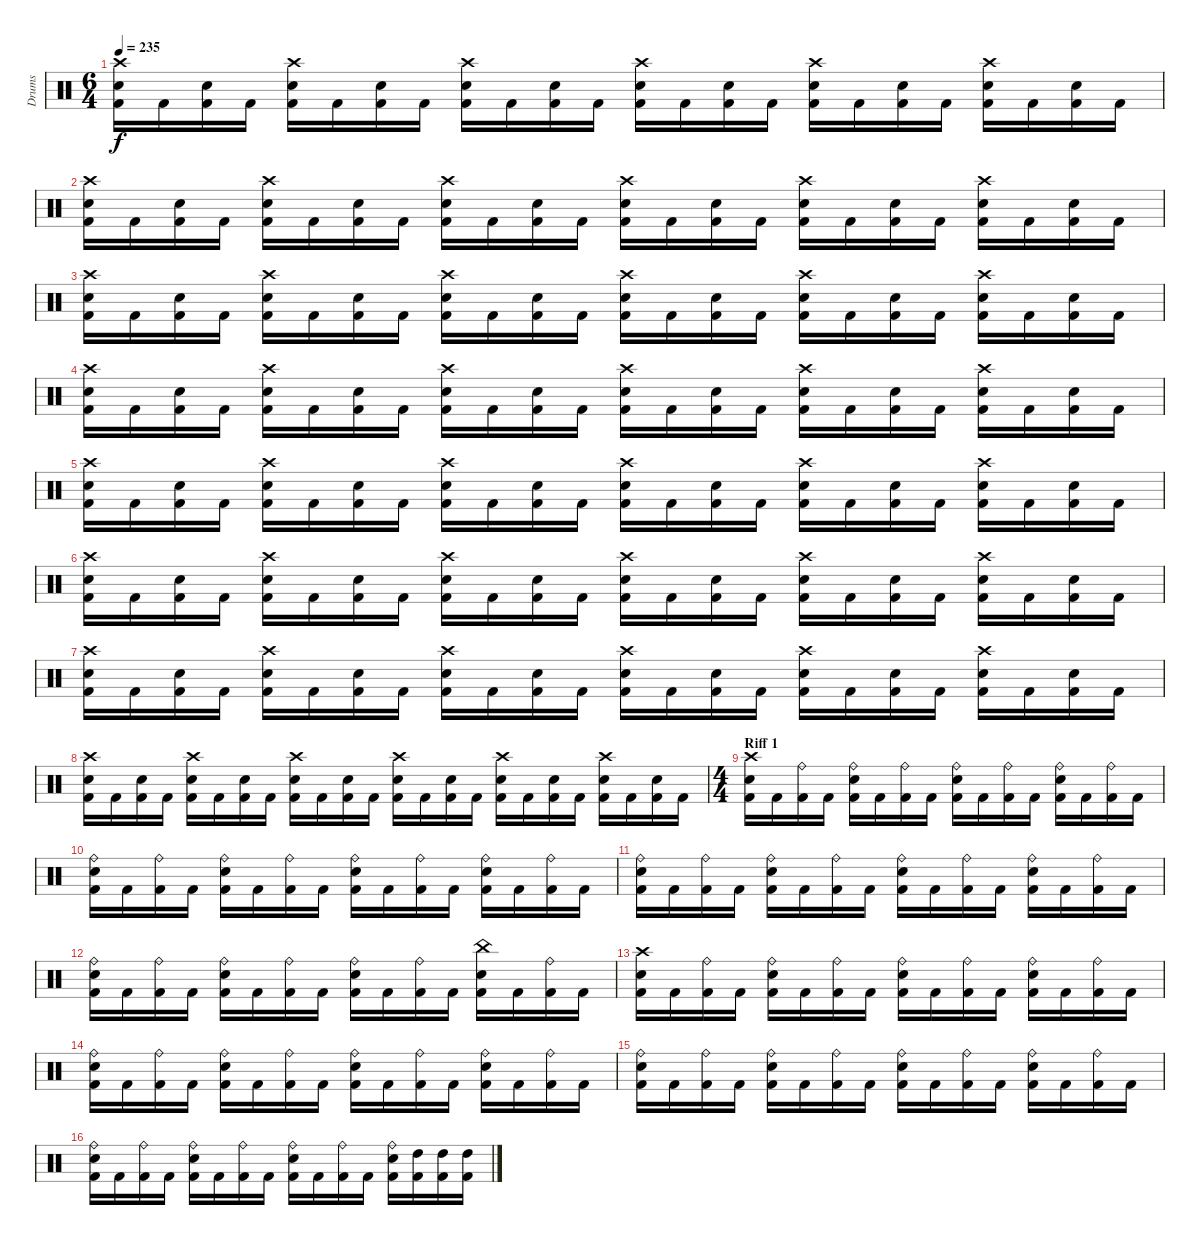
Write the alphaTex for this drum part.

\track ("Drums" "Drums") {instrument percussion}
\staff {score}
\articulation defaults
\ts (6 4)
\tempo 235
\clef neutral
\ks c
("Kick (hit) 2" "Snare (hit) 2" "Crash high (hit)").16{dy f} "Kick (hit) 2".16 ("Kick (hit) 2" "Snare (hit) 2").16 "Kick (hit) 2".16 ("Kick (hit) 2" "Snare (hit) 2" "Crash high (hit)").16 "Kick (hit) 2".16 ("Kick (hit) 2" "Snare (hit) 2").16 "Kick (hit) 2".16 ("Kick (hit) 2" "Snare (hit) 2" "Crash high (hit)").16 "Kick (hit) 2".16 ("Kick (hit) 2" "Snare (hit) 2").16 "Kick (hit) 2".16 ("Kick (hit) 2" "Snare (hit) 2" "Crash high (hit)").16 "Kick (hit) 2".16 ("Kick (hit) 2" "Snare (hit) 2").16 "Kick (hit) 2".16 ("Kick (hit) 2" "Snare (hit) 2" "Crash high (hit)").16 "Kick (hit) 2".16 ("Kick (hit) 2" "Snare (hit) 2").16 "Kick (hit) 2".16 ("Kick (hit) 2" "Snare (hit) 2" "Crash high (hit)").16 "Kick (hit) 2".16 ("Kick (hit) 2" "Snare (hit) 2").16 "Kick (hit) 2".16 |
("Kick (hit) 2" "Snare (hit) 2" "Crash high (hit)").16 "Kick (hit) 2".16 ("Kick (hit) 2" "Snare (hit) 2").16 "Kick (hit) 2".16 ("Kick (hit) 2" "Snare (hit) 2" "Crash high (hit)").16 "Kick (hit) 2".16 ("Kick (hit) 2" "Snare (hit) 2").16 "Kick (hit) 2".16 ("Kick (hit) 2" "Snare (hit) 2" "Crash high (hit)").16 "Kick (hit) 2".16 ("Kick (hit) 2" "Snare (hit) 2").16 "Kick (hit) 2".16 ("Kick (hit) 2" "Snare (hit) 2" "Crash high (hit)").16 "Kick (hit) 2".16 ("Kick (hit) 2" "Snare (hit) 2").16 "Kick (hit) 2".16 ("Kick (hit) 2" "Snare (hit) 2" "Crash high (hit)").16 "Kick (hit) 2".16 ("Kick (hit) 2" "Snare (hit) 2").16 "Kick (hit) 2".16 ("Kick (hit) 2" "Snare (hit) 2" "Crash high (hit)").16 "Kick (hit) 2".16 ("Kick (hit) 2" "Snare (hit) 2").16 "Kick (hit) 2".16 |
("Kick (hit) 2" "Snare (hit) 2" "Crash high (hit)").16 "Kick (hit) 2".16 ("Kick (hit) 2" "Snare (hit) 2").16 "Kick (hit) 2".16 ("Kick (hit) 2" "Snare (hit) 2" "Crash high (hit)").16 "Kick (hit) 2".16 ("Kick (hit) 2" "Snare (hit) 2").16 "Kick (hit) 2".16 ("Kick (hit) 2" "Snare (hit) 2" "Crash high (hit)").16 "Kick (hit) 2".16 ("Kick (hit) 2" "Snare (hit) 2").16 "Kick (hit) 2".16 ("Kick (hit) 2" "Snare (hit) 2" "Crash high (hit)").16 "Kick (hit) 2".16 ("Kick (hit) 2" "Snare (hit) 2").16 "Kick (hit) 2".16 ("Kick (hit) 2" "Snare (hit) 2" "Crash high (hit)").16 "Kick (hit) 2".16 ("Kick (hit) 2" "Snare (hit) 2").16 "Kick (hit) 2".16 ("Kick (hit) 2" "Snare (hit) 2" "Crash high (hit)").16 "Kick (hit) 2".16 ("Kick (hit) 2" "Snare (hit) 2").16 "Kick (hit) 2".16 |
("Kick (hit) 2" "Snare (hit) 2" "Crash high (hit)").16 "Kick (hit) 2".16 ("Kick (hit) 2" "Snare (hit) 2").16 "Kick (hit) 2".16 ("Kick (hit) 2" "Snare (hit) 2" "Crash high (hit)").16 "Kick (hit) 2".16 ("Kick (hit) 2" "Snare (hit) 2").16 "Kick (hit) 2".16 ("Kick (hit) 2" "Snare (hit) 2" "Crash high (hit)").16 "Kick (hit) 2".16 ("Kick (hit) 2" "Snare (hit) 2").16 "Kick (hit) 2".16 ("Kick (hit) 2" "Snare (hit) 2" "Crash high (hit)").16 "Kick (hit) 2".16 ("Kick (hit) 2" "Snare (hit) 2").16 "Kick (hit) 2".16 ("Kick (hit) 2" "Snare (hit) 2" "Crash high (hit)").16 "Kick (hit) 2".16 ("Kick (hit) 2" "Snare (hit) 2").16 "Kick (hit) 2".16 ("Kick (hit) 2" "Snare (hit) 2" "Crash high (hit)").16 "Kick (hit) 2".16 ("Kick (hit) 2" "Snare (hit) 2").16 "Kick (hit) 2".16 |
("Kick (hit) 2" "Snare (hit) 2" "Crash high (hit)").16 "Kick (hit) 2".16 ("Kick (hit) 2" "Snare (hit) 2").16 "Kick (hit) 2".16 ("Kick (hit) 2" "Snare (hit) 2" "Crash high (hit)").16 "Kick (hit) 2".16 ("Kick (hit) 2" "Snare (hit) 2").16 "Kick (hit) 2".16 ("Kick (hit) 2" "Snare (hit) 2" "Crash high (hit)").16 "Kick (hit) 2".16 ("Kick (hit) 2" "Snare (hit) 2").16 "Kick (hit) 2".16 ("Kick (hit) 2" "Snare (hit) 2" "Crash high (hit)").16 "Kick (hit) 2".16 ("Kick (hit) 2" "Snare (hit) 2").16 "Kick (hit) 2".16 ("Kick (hit) 2" "Snare (hit) 2" "Crash high (hit)").16 "Kick (hit) 2".16 ("Kick (hit) 2" "Snare (hit) 2").16 "Kick (hit) 2".16 ("Kick (hit) 2" "Snare (hit) 2" "Crash high (hit)").16 "Kick (hit) 2".16 ("Kick (hit) 2" "Snare (hit) 2").16 "Kick (hit) 2".16 |
("Kick (hit) 2" "Snare (hit) 2" "Crash high (hit)").16 "Kick (hit) 2".16 ("Kick (hit) 2" "Snare (hit) 2").16 "Kick (hit) 2".16 ("Kick (hit) 2" "Snare (hit) 2" "Crash high (hit)").16 "Kick (hit) 2".16 ("Kick (hit) 2" "Snare (hit) 2").16 "Kick (hit) 2".16 ("Kick (hit) 2" "Snare (hit) 2" "Crash high (hit)").16 "Kick (hit) 2".16 ("Kick (hit) 2" "Snare (hit) 2").16 "Kick (hit) 2".16 ("Kick (hit) 2" "Snare (hit) 2" "Crash high (hit)").16 "Kick (hit) 2".16 ("Kick (hit) 2" "Snare (hit) 2").16 "Kick (hit) 2".16 ("Kick (hit) 2" "Snare (hit) 2" "Crash high (hit)").16 "Kick (hit) 2".16 ("Kick (hit) 2" "Snare (hit) 2").16 "Kick (hit) 2".16 ("Kick (hit) 2" "Snare (hit) 2" "Crash high (hit)").16 "Kick (hit) 2".16 ("Kick (hit) 2" "Snare (hit) 2").16 "Kick (hit) 2".16 |
("Kick (hit) 2" "Snare (hit) 2" "Crash high (hit)").16 "Kick (hit) 2".16 ("Kick (hit) 2" "Snare (hit) 2").16 "Kick (hit) 2".16 ("Kick (hit) 2" "Snare (hit) 2" "Crash high (hit)").16 "Kick (hit) 2".16 ("Kick (hit) 2" "Snare (hit) 2").16 "Kick (hit) 2".16 ("Kick (hit) 2" "Snare (hit) 2" "Crash high (hit)").16 "Kick (hit) 2".16 ("Kick (hit) 2" "Snare (hit) 2").16 "Kick (hit) 2".16 ("Kick (hit) 2" "Snare (hit) 2" "Crash high (hit)").16 "Kick (hit) 2".16 ("Kick (hit) 2" "Snare (hit) 2").16 "Kick (hit) 2".16 ("Kick (hit) 2" "Snare (hit) 2" "Crash high (hit)").16 "Kick (hit) 2".16 ("Kick (hit) 2" "Snare (hit) 2").16 "Kick (hit) 2".16 ("Kick (hit) 2" "Snare (hit) 2" "Crash high (hit)").16 "Kick (hit) 2".16 ("Kick (hit) 2" "Snare (hit) 2").16 "Kick (hit) 2".16 |
("Kick (hit) 2" "Snare (hit) 2" "Crash high (hit)").16 "Kick (hit) 2".16 ("Kick (hit) 2" "Snare (hit) 2").16 "Kick (hit) 2".16 ("Kick (hit) 2" "Snare (hit) 2" "Crash high (hit)").16 "Kick (hit) 2".16 ("Kick (hit) 2" "Snare (hit) 2").16 "Kick (hit) 2".16 ("Kick (hit) 2" "Snare (hit) 2" "Crash high (hit)").16 "Kick (hit) 2".16 ("Kick (hit) 2" "Snare (hit) 2").16 "Kick (hit) 2".16 ("Kick (hit) 2" "Snare (hit) 2" "Crash high (hit)").16 "Kick (hit) 2".16 ("Kick (hit) 2" "Snare (hit) 2").16 "Kick (hit) 2".16 ("Kick (hit) 2" "Snare (hit) 2" "Crash high (hit)").16 "Kick (hit) 2".16 ("Kick (hit) 2" "Snare (hit) 2").16 "Kick (hit) 2".16 ("Kick (hit) 2" "Snare (hit) 2" "Crash high (hit)").16 "Kick (hit) 2".16 ("Kick (hit) 2" "Snare (hit) 2").16 "Kick (hit) 2".16 |
\ts (4 4)
\section ("" "Riff 1")
("Kick (hit) 2" "Snare (hit) 2" "Crash high (hit)").16 "Kick (hit) 2".16 ("Kick (hit) 2" "Ride (bell)").16 "Kick (hit) 2".16 ("Kick (hit) 2" "Snare (hit) 2" "Ride (bell)").16 "Kick (hit) 2".16 ("Kick (hit) 2" "Ride (bell)").16 "Kick (hit) 2".16 ("Kick (hit) 2" "Snare (hit) 2" "Ride (bell)").16 "Kick (hit) 2".16 ("Kick (hit) 2" "Ride (bell)").16 "Kick (hit) 2".16 ("Kick (hit) 2" "Snare (hit) 2" "Ride (bell)").16 "Kick (hit) 2".16 ("Kick (hit) 2" "Ride (bell)").16 "Kick (hit) 2".16 |
("Kick (hit) 2" "Snare (hit) 2" "Ride (bell)").16 "Kick (hit) 2".16 ("Kick (hit) 2" "Ride (bell)").16 "Kick (hit) 2".16 ("Kick (hit) 2" "Snare (hit) 2" "Ride (bell)").16 "Kick (hit) 2".16 ("Kick (hit) 2" "Ride (bell)").16 "Kick (hit) 2".16 ("Kick (hit) 2" "Snare (hit) 2" "Ride (bell)").16 "Kick (hit) 2".16 ("Kick (hit) 2" "Ride (bell)").16 "Kick (hit) 2".16 ("Kick (hit) 2" "Snare (hit) 2" "Ride (bell)").16 "Kick (hit) 2".16 ("Kick (hit) 2" "Ride (bell)").16 "Kick (hit) 2".16 |
("Kick (hit) 2" "Snare (hit) 2" "Ride (bell)").16 "Kick (hit) 2".16 ("Kick (hit) 2" "Ride (bell)").16 "Kick (hit) 2".16 ("Kick (hit) 2" "Snare (hit) 2" "Ride (bell)").16 "Kick (hit) 2".16 ("Kick (hit) 2" "Ride (bell)").16 "Kick (hit) 2".16 ("Kick (hit) 2" "Snare (hit) 2" "Ride (bell)").16 "Kick (hit) 2".16 ("Kick (hit) 2" "Ride (bell)").16 "Kick (hit) 2".16 ("Kick (hit) 2" "Snare (hit) 2" "Ride (bell)").16 "Kick (hit) 2".16 ("Kick (hit) 2" "Ride (bell)").16 "Kick (hit) 2".16 |
("Kick (hit) 2" "Snare (hit) 2" "Ride (bell)").16 "Kick (hit) 2".16 ("Kick (hit) 2" "Ride (bell)").16 "Kick (hit) 2".16 ("Kick (hit) 2" "Snare (hit) 2" "Ride (bell)").16 "Kick (hit) 2".16 ("Kick (hit) 2" "Ride (bell)").16 "Kick (hit) 2".16 ("Kick (hit) 2" "Snare (hit) 2" "Ride (bell)").16 "Kick (hit) 2".16 ("Kick (hit) 2" "Ride (bell)").16 "Kick (hit) 2".16 ("Kick (hit) 2" "Snare (hit) 2" "China (hit)").16 "Kick (hit) 2".16 ("Kick (hit) 2" "Ride (bell)").16 "Kick (hit) 2".16 |
("Kick (hit) 2" "Snare (hit) 2" "Crash high (hit)").16 "Kick (hit) 2".16 ("Kick (hit) 2" "Ride (bell)").16 "Kick (hit) 2".16 ("Kick (hit) 2" "Snare (hit) 2" "Ride (bell)").16 "Kick (hit) 2".16 ("Kick (hit) 2" "Ride (bell)").16 "Kick (hit) 2".16 ("Kick (hit) 2" "Snare (hit) 2" "Ride (bell)").16 "Kick (hit) 2".16 ("Kick (hit) 2" "Ride (bell)").16 "Kick (hit) 2".16 ("Kick (hit) 2" "Snare (hit) 2" "Ride (bell)").16 "Kick (hit) 2".16 ("Kick (hit) 2" "Ride (bell)").16 "Kick (hit) 2".16 |
("Kick (hit) 2" "Snare (hit) 2" "Ride (bell)").16 "Kick (hit) 2".16 ("Kick (hit) 2" "Ride (bell)").16 "Kick (hit) 2".16 ("Kick (hit) 2" "Snare (hit) 2" "Ride (bell)").16 "Kick (hit) 2".16 ("Kick (hit) 2" "Ride (bell)").16 "Kick (hit) 2".16 ("Kick (hit) 2" "Snare (hit) 2" "Ride (bell)").16 "Kick (hit) 2".16 ("Kick (hit) 2" "Ride (bell)").16 "Kick (hit) 2".16 ("Kick (hit) 2" "Snare (hit) 2" "Ride (bell)").16 "Kick (hit) 2".16 ("Kick (hit) 2" "Ride (bell)").16 "Kick (hit) 2".16 |
("Kick (hit) 2" "Snare (hit) 2" "Ride (bell)").16 "Kick (hit) 2".16 ("Kick (hit) 2" "Ride (bell)").16 "Kick (hit) 2".16 ("Kick (hit) 2" "Snare (hit) 2" "Ride (bell)").16 "Kick (hit) 2".16 ("Kick (hit) 2" "Ride (bell)").16 "Kick (hit) 2".16 ("Kick (hit) 2" "Snare (hit) 2" "Ride (bell)").16 "Kick (hit) 2".16 ("Kick (hit) 2" "Ride (bell)").16 "Kick (hit) 2".16 ("Kick (hit) 2" "Snare (hit) 2" "Ride (bell)").16 "Kick (hit) 2".16 ("Kick (hit) 2" "Ride (bell)").16 "Kick (hit) 2".16 |
("Kick (hit) 2" "Snare (hit) 2" "Ride (bell)").16 "Kick (hit) 2".16 ("Kick (hit) 2" "Ride (bell)").16 "Kick (hit) 2".16 ("Kick (hit) 2" "Snare (hit) 2" "Ride (bell)").16 "Kick (hit) 2".16 ("Kick (hit) 2" "Ride (bell)").16 "Kick (hit) 2".16 ("Kick (hit) 2" "Snare (hit) 2" "Ride (bell)").16 "Kick (hit) 2".16 ("Kick (hit) 2" "Ride (bell)").16 "Kick (hit) 2".16 ("Kick (hit) 2" "Snare (hit) 2" "Ride (bell)").16 ("Kick (hit) 2" "High Tom (hit)").16 ("Kick (hit) 2" "High Tom (hit)").16 ("Kick (hit) 2" "High Tom (hit)").16
